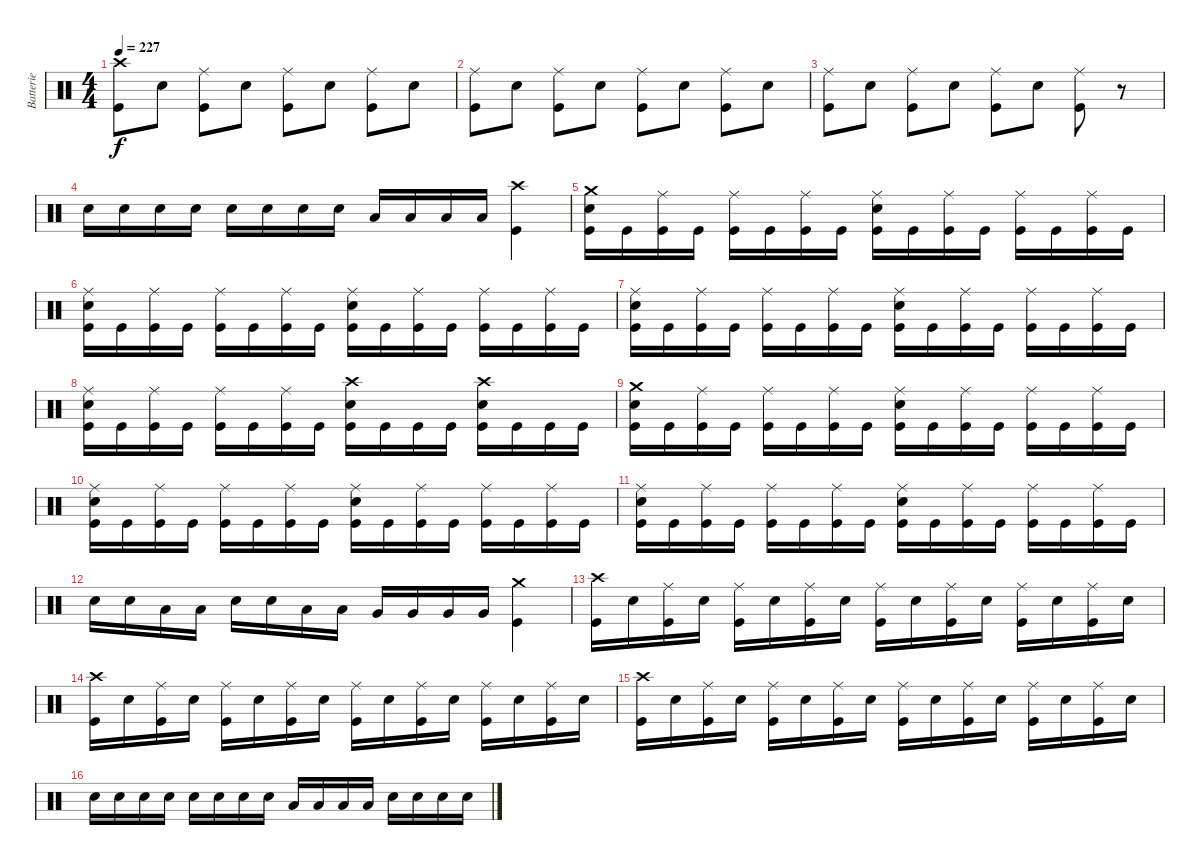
\track ("Batterie" "Batterie") {instrument percussion}
\staff {score}
\articulation defaults
\ts (4 4)
\tempo 227
\clef neutral
\ks c
("Crash high (hit)" "Kick (hit)").8{dy f} "Electric Snare (hit)".8 ("Ride (middle)" "Kick (hit)").8 "Electric Snare (hit)".8 ("Ride (middle)" "Kick (hit)").8 "Electric Snare (hit)".8 ("Ride (middle)" "Kick (hit)").8 "Electric Snare (hit)".8 |
("Ride (middle)" "Kick (hit)").8 "Electric Snare (hit)".8 ("Ride (middle)" "Kick (hit)").8 "Electric Snare (hit)".8 ("Ride (middle)" "Kick (hit)").8 "Electric Snare (hit)".8 ("Ride (middle)" "Kick (hit)").8 "Electric Snare (hit)".8 |
("Ride (middle)" "Kick (hit)").8 "Electric Snare (hit)".8 ("Ride (middle)" "Kick (hit)").8 "Electric Snare (hit)".8 ("Ride (middle)" "Kick (hit)").8 "Electric Snare (hit)".8 ("Ride (middle)" "Kick (hit)").8 r.8 |
"Electric Snare (hit)".16 "Electric Snare (hit)".16 "Electric Snare (hit)".16 "Electric Snare (hit)".16 "Electric Snare (hit)".16 "Electric Snare (hit)".16 "Electric Snare (hit)".16 "Electric Snare (hit)".16 "Low Tom (hit)".16 "Low Tom (hit)".16 "Low Tom (hit)".16 "Low Tom (hit)".16 ("Crash high (hit)" "Kick (hit)").4 |
("Crash medium (hit)" "Electric Snare (hit)" "Kick (hit)").16 "Kick (hit)".16 ("Ride (middle)" "Kick (hit)").16 "Kick (hit)".16 ("Ride (middle)" "Kick (hit)").16 "Kick (hit)".16 ("Ride (middle)" "Kick (hit)").16 "Kick (hit)".16 ("Ride (middle)" "Electric Snare (hit)" "Kick (hit)").16 "Kick (hit)".16 ("Ride (middle)" "Kick (hit)").16 "Kick (hit)".16 ("Ride (middle)" "Kick (hit)").16 "Kick (hit)".16 ("Ride (middle)" "Kick (hit)").16 "Kick (hit)".16 |
("Ride (middle)" "Electric Snare (hit)" "Kick (hit)").16 "Kick (hit)".16 ("Ride (middle)" "Kick (hit)").16 "Kick (hit)".16 ("Ride (middle)" "Kick (hit)").16 "Kick (hit)".16 ("Ride (middle)" "Kick (hit)").16 "Kick (hit)".16 ("Ride (middle)" "Electric Snare (hit)" "Kick (hit)").16 "Kick (hit)".16 ("Ride (middle)" "Kick (hit)").16 "Kick (hit)".16 ("Ride (middle)" "Kick (hit)").16 "Kick (hit)".16 ("Ride (middle)" "Kick (hit)").16 "Kick (hit)".16 |
("Ride (middle)" "Electric Snare (hit)" "Kick (hit)").16 "Kick (hit)".16 ("Ride (middle)" "Kick (hit)").16 "Kick (hit)".16 ("Ride (middle)" "Kick (hit)").16 "Kick (hit)".16 ("Ride (middle)" "Kick (hit)").16 "Kick (hit)".16 ("Ride (middle)" "Electric Snare (hit)" "Kick (hit)").16 "Kick (hit)".16 ("Ride (middle)" "Kick (hit)").16 "Kick (hit)".16 ("Ride (middle)" "Kick (hit)").16 "Kick (hit)".16 ("Ride (middle)" "Kick (hit)").16 "Kick (hit)".16 |
("Ride (middle)" "Electric Snare (hit)" "Kick (hit)").16 "Kick (hit)".16 ("Ride (middle)" "Kick (hit)").16 "Kick (hit)".16 ("Ride (middle)" "Kick (hit)").16 "Kick (hit)".16 ("Ride (middle)" "Kick (hit)").16 "Kick (hit)".16 ("Crash high (hit)" "Electric Snare (hit)" "Kick (hit)").16 "Kick (hit)".16 "Kick (hit)".16 "Kick (hit)".16 ("Crash high (hit)" "Electric Snare (hit)" "Kick (hit)").16 "Kick (hit)".16 "Kick (hit)".16 "Kick (hit)".16 |
("Crash medium (hit)" "Electric Snare (hit)" "Kick (hit)").16 "Kick (hit)".16 ("Ride (middle)" "Kick (hit)").16 "Kick (hit)".16 ("Ride (middle)" "Kick (hit)").16 "Kick (hit)".16 ("Ride (middle)" "Kick (hit)").16 "Kick (hit)".16 ("Ride (middle)" "Electric Snare (hit)" "Kick (hit)").16 "Kick (hit)".16 ("Ride (middle)" "Kick (hit)").16 "Kick (hit)".16 ("Ride (middle)" "Kick (hit)").16 "Kick (hit)".16 ("Ride (middle)" "Kick (hit)").16 "Kick (hit)".16 |
("Ride (middle)" "Electric Snare (hit)" "Kick (hit)").16 "Kick (hit)".16 ("Ride (middle)" "Kick (hit)").16 "Kick (hit)".16 ("Ride (middle)" "Kick (hit)").16 "Kick (hit)".16 ("Ride (middle)" "Kick (hit)").16 "Kick (hit)".16 ("Ride (middle)" "Electric Snare (hit)" "Kick (hit)").16 "Kick (hit)".16 ("Ride (middle)" "Kick (hit)").16 "Kick (hit)".16 ("Ride (middle)" "Kick (hit)").16 "Kick (hit)".16 ("Ride (middle)" "Kick (hit)").16 "Kick (hit)".16 |
("Ride (middle)" "Electric Snare (hit)" "Kick (hit)").16 "Kick (hit)".16 ("Ride (middle)" "Kick (hit)").16 "Kick (hit)".16 ("Ride (middle)" "Kick (hit)").16 "Kick (hit)".16 ("Ride (middle)" "Kick (hit)").16 "Kick (hit)".16 ("Ride (middle)" "Electric Snare (hit)" "Kick (hit)").16 "Kick (hit)".16 ("Ride (middle)" "Kick (hit)").16 "Kick (hit)".16 ("Ride (middle)" "Kick (hit)").16 "Kick (hit)".16 ("Ride (middle)" "Kick (hit)").16 "Kick (hit)".16 |
"Electric Snare (hit)".16 "Electric Snare (hit)".16 "Low Tom (hit)".16 "Low Tom (hit)".16 "Electric Snare (hit)".16 "Electric Snare (hit)".16 "Low Tom (hit)".16 "Low Tom (hit)".16 "Very Low Tom (hit)".16 "Very Low Tom (hit)".16 "Very Low Tom (hit)".16 "Very Low Tom (hit)".16 ("Crash medium (hit)" "Kick (hit)").4 |
("Crash high (hit)" "Kick (hit)").16 "Electric Snare (hit)".16 ("Ride (middle)" "Kick (hit)").16 "Electric Snare (hit)".16 ("Ride (middle)" "Kick (hit)").16 "Electric Snare (hit)".16 ("Ride (middle)" "Kick (hit)").16 "Electric Snare (hit)".16 ("Ride (middle)" "Kick (hit)").16 "Electric Snare (hit)".16 ("Ride (middle)" "Kick (hit)").16 "Electric Snare (hit)".16 ("Ride (middle)" "Kick (hit)").16 "Electric Snare (hit)".16 ("Ride (middle)" "Kick (hit)").16 "Electric Snare (hit)".16 |
("Crash high (hit)" "Kick (hit)").16 "Electric Snare (hit)".16 ("Ride (middle)" "Kick (hit)").16 "Electric Snare (hit)".16 ("Ride (middle)" "Kick (hit)").16 "Electric Snare (hit)".16 ("Ride (middle)" "Kick (hit)").16 "Electric Snare (hit)".16 ("Ride (middle)" "Kick (hit)").16 "Electric Snare (hit)".16 ("Ride (middle)" "Kick (hit)").16 "Electric Snare (hit)".16 ("Ride (middle)" "Kick (hit)").16 "Electric Snare (hit)".16 ("Ride (middle)" "Kick (hit)").16 "Electric Snare (hit)".16 |
("Crash high (hit)" "Kick (hit)").16 "Electric Snare (hit)".16 ("Ride (middle)" "Kick (hit)").16 "Electric Snare (hit)".16 ("Ride (middle)" "Kick (hit)").16 "Electric Snare (hit)".16 ("Ride (middle)" "Kick (hit)").16 "Electric Snare (hit)".16 ("Ride (middle)" "Kick (hit)").16 "Electric Snare (hit)".16 ("Ride (middle)" "Kick (hit)").16 "Electric Snare (hit)".16 ("Ride (middle)" "Kick (hit)").16 "Electric Snare (hit)".16 ("Ride (middle)" "Kick (hit)").16 "Electric Snare (hit)".16 |
"Electric Snare (hit)".16 "Electric Snare (hit)".16 "Electric Snare (hit)".16 "Electric Snare (hit)".16 "Electric Snare (hit)".16 "Electric Snare (hit)".16 "Electric Snare (hit)".16 "Electric Snare (hit)".16 "Low Tom (hit)".16 "Low Tom (hit)".16 "Low Tom (hit)".16 "Low Tom (hit)".16 "Electric Snare (hit)".16 "Electric Snare (hit)".16 "Electric Snare (hit)".16 "Electric Snare (hit)".16
